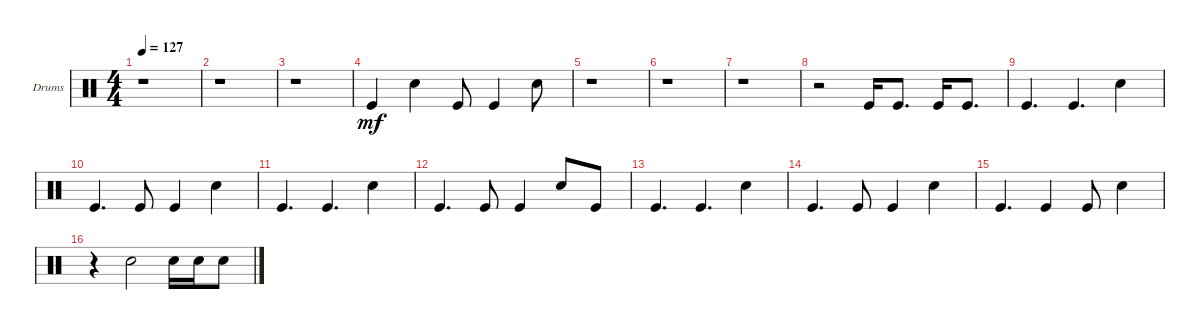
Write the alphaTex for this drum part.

\bracketExtendMode groupsimilarinstruments
\firstSystemTrackNameOrientation horizontal
\otherSystemsTrackNameOrientation horizontal
\track ("Drums" "Drums") {instrument percussion}
\staff {score}
\articulation defaults
\ts (4 4)
\tempo 127
\clef neutral
\ks c
r.1{dy mf} |
r.1 |
r.1 |
"Kick (hit)".4 "Snare (hit) 2".4 "Kick (hit)".8 "Kick (hit)".4 "Snare (hit) 2".8 |
r.1 |
r.1 |
r.1 |
r.2 "Kick (hit)".16 "Kick (hit)".8{d} "Kick (hit)".16 "Kick (hit)".8{d} |
"Kick (hit)".4{d} "Kick (hit)".4{d} "Snare (hit) 2".4 |
"Kick (hit)".4{d} "Kick (hit)".8 "Kick (hit)".4 "Snare (hit) 2".4 |
"Kick (hit)".4{d} "Kick (hit)".4{d} "Snare (hit) 2".4 |
"Kick (hit)".4{d} "Kick (hit)".8 "Kick (hit)".4 "Snare (hit) 2".8 "Kick (hit)".8 |
"Kick (hit)".4{d} "Kick (hit)".4{d} "Snare (hit) 2".4 |
"Kick (hit)".4{d} "Kick (hit)".8 "Kick (hit)".4 "Snare (hit) 2".4 |
"Kick (hit)".4{d} "Kick (hit)".4 "Kick (hit)".8 "Snare (hit) 2".4 |
r.4 "Snare (hit) 2".2 "Snare (hit) 2".16 "Snare (hit) 2".16 "Snare (hit) 2".8
